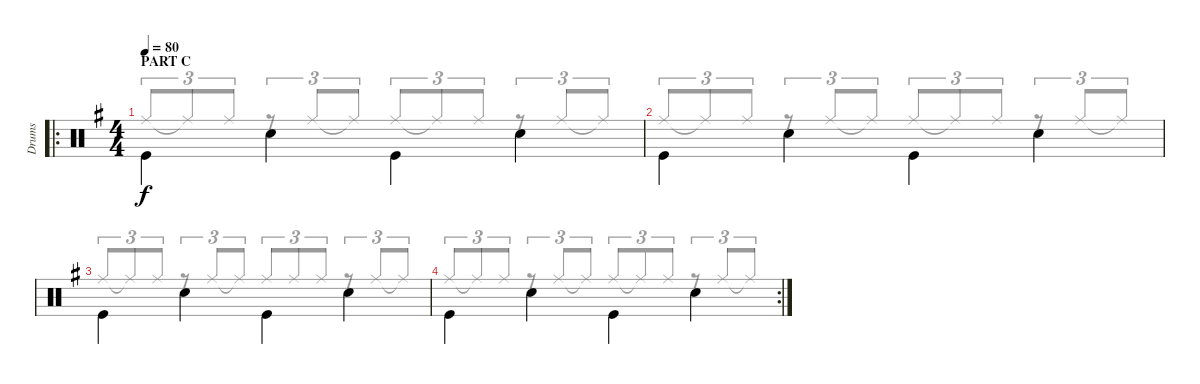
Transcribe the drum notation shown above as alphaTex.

\track ("Drums" "Drums") {instrument percussion}
\staff {score}
\articulation defaults
\voice
\ro
\ts (4 4)
\section ("" "PART C")
\tempo 80
\clef neutral
\ks g "Kick (hit)".4{dy f beam Down} "Snare (hit) 2".4{beam Down} "Kick (hit)".4{beam Down} "Snare (hit) 2".4{beam Down}
|
"Kick (hit)".4{beam Down} "Snare (hit) 2".4{beam Down} "Kick (hit)".4{beam Down} "Snare (hit) 2".4{beam Down} |
"Kick (hit)".4{beam Down} "Snare (hit) 2".4{beam Down} "Kick (hit)".4{beam Down} "Snare (hit) 2".4{beam Down} |
\rc 2 "Kick (hit)".4{beam Down} "Snare (hit) 2".4{beam Down} "Kick (hit)".4{beam Down} "Snare (hit) 2".4{beam Down}
\voice
\clef neutral
\ottava regular
\simile none
\ks g "Ride (middle)".8{tu (3 2) dy f beam Up} "Ride (middle)"{t}.8{tu (3 2) beam Up} "Ride (middle)".8{tu (3 2) beam Up}
r.8{tu (3 2) beam Up} "Ride (middle)".8{tu (3 2) beam Up} "Ride (middle)"{t}.8{tu (3 2) beam Up} "Ride (middle)".8{tu (3 2) beam Up} "Ride (middle)"{t}.8{tu (3 2) beam Up} "Ride (middle)".8{tu (3 2) beam Up} r.8{tu (3 2) beam Up} "Ride (middle)".8{tu (3 2) beam Up} "Ride (middle)"{t}.8{tu (3 2) beam Up} |
"Ride (middle)".8{tu (3 2) beam Up} "Ride (middle)"{t}.8{tu (3 2) beam Up} "Ride (middle)".8{tu (3 2) beam Up} r.8{tu (3 2) beam Up} "Ride (middle)".8{tu (3 2) beam Up} "Ride (middle)"{t}.8{tu (3 2) beam Up} "Ride (middle)".8{tu (3 2) beam Up} "Ride (middle)"{t}.8{tu (3 2) beam Up} "Ride (middle)".8{tu (3 2) beam Up} r.8{tu (3 2) beam Up} "Ride (middle)".8{tu (3 2) beam Up} "Ride (middle)"{t}.8{tu (3 2) beam Up} |
"Ride (middle)".8{tu (3 2) beam Up} "Ride (middle)"{t}.8{tu (3 2) beam Up} "Ride (middle)".8{tu (3 2) beam Up} r.8{tu (3 2) beam Up} "Ride (middle)".8{tu (3 2) beam Up} "Ride (middle)"{t}.8{tu (3 2) beam Up} "Ride (middle)".8{tu (3 2) beam Up} "Ride (middle)".8{tu (3 2) beam Up} "Ride (middle)".8{tu (3 2) beam Up} r.8{tu (3 2) beam Up} "Ride (middle)".8{tu (3 2) beam Up} "Ride (middle)"{t}.8{tu (3 2) beam Up} |
"Ride (middle)".8{tu (3 2) beam Up} "Ride (middle)"{t}.8{tu (3 2) beam Up} "Ride (middle)".8{tu (3 2) beam Up} r.8{tu (3 2) beam Up} "Ride (middle)".8{tu (3 2) beam Up} "Ride (middle)"{t}.8{tu (3 2) beam Up} "Ride (middle)".8{tu (3 2) beam Up} "Ride (middle)"{t}.8{tu (3 2) beam Up} "Ride (middle)".8{tu (3 2) beam Up} r.8{tu (3 2) beam Up} "Ride (middle)".8{tu (3 2) beam Up} "Ride (middle)"{t}.8{tu (3 2) beam Up}
